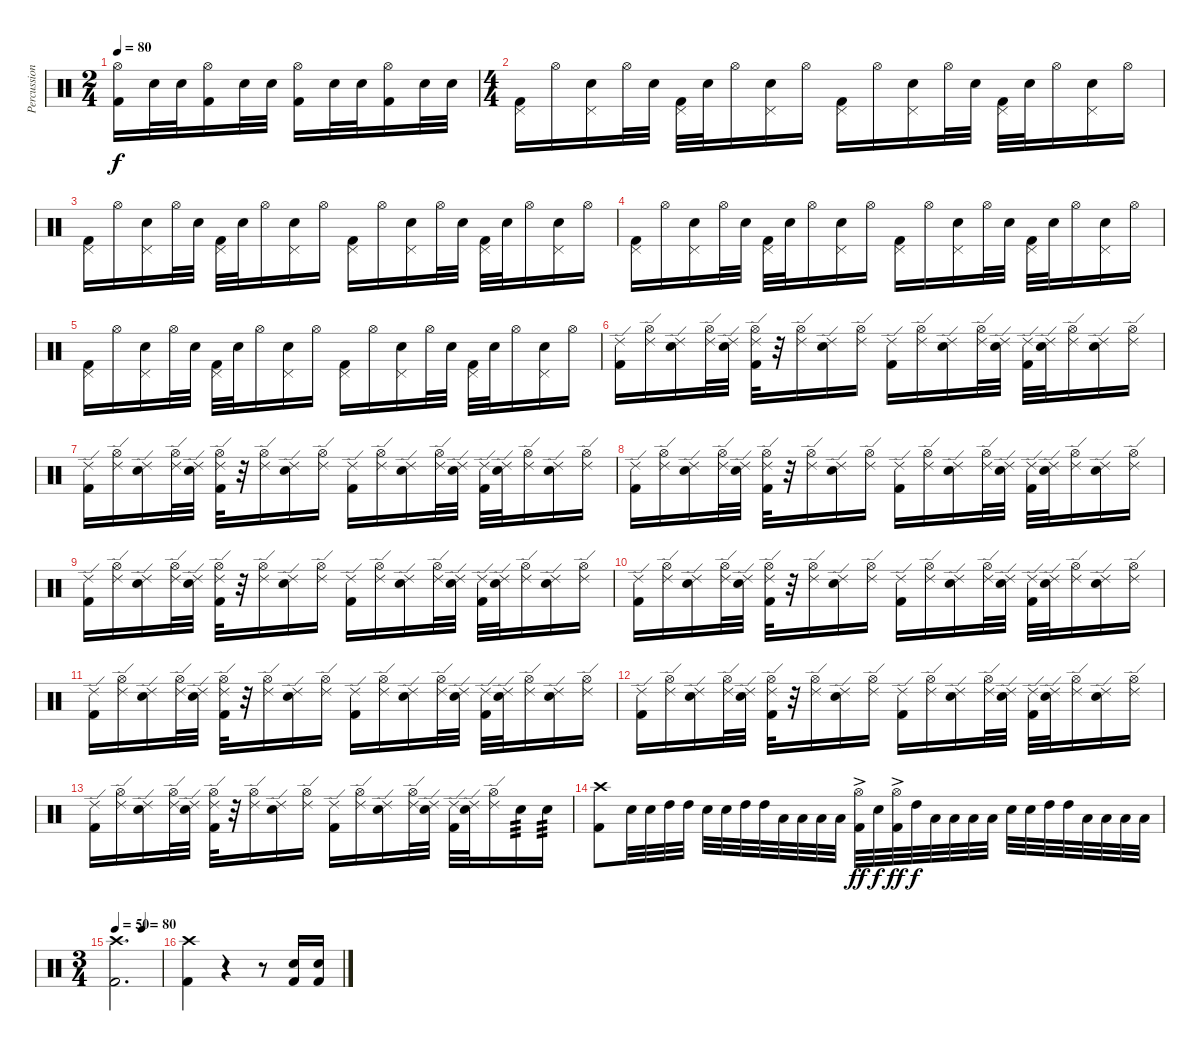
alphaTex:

\track ("Percussion" "Percussion") {instrument percussion}
\staff {score}
\articulation defaults
\ts (2 4)
\tempo 80
\clef neutral
\ks c
("Hi-Hat (open)" "Kick (hit) 2").16{dy f} "Electric Snare (hit)".32 "Electric Snare (hit)".32 ("Hi-Hat (open)" "Kick (hit) 2").16 "Electric Snare (hit)".32 "Electric Snare (hit)".32 ("Hi-Hat (open)" "Kick (hit) 2").16 "Electric Snare (hit)".32 "Electric Snare (hit)".32 ("Hi-Hat (open)" "Kick (hit) 2").16 "Electric Snare (hit)".32 "Electric Snare (hit)".32 |
\ts (4 4)
("Pedal Hi-Hat (hit)" "Kick (hit) 2").16 "Hi-Hat (open)".16 ("Pedal Hi-Hat (hit)" "Electric Snare (hit)").16 "Hi-Hat (open)".32 "Electric Snare (hit)".32 ("Pedal Hi-Hat (hit)" "Kick (hit) 2").32 "Electric Snare (hit)".32 "Hi-Hat (open)".16 ("Pedal Hi-Hat (hit)" "Electric Snare (hit)").16 "Hi-Hat (open)".16 ("Pedal Hi-Hat (hit)" "Kick (hit) 2").16 "Hi-Hat (open)".16 ("Pedal Hi-Hat (hit)" "Electric Snare (hit)").16 "Hi-Hat (open)".32 "Electric Snare (hit)".32 ("Pedal Hi-Hat (hit)" "Kick (hit) 2").32 "Electric Snare (hit)".32 "Hi-Hat (open)".16 ("Pedal Hi-Hat (hit)" "Electric Snare (hit)").16 "Hi-Hat (open)".16 |
("Pedal Hi-Hat (hit)" "Kick (hit) 2").16 "Hi-Hat (open)".16 ("Pedal Hi-Hat (hit)" "Electric Snare (hit)").16 "Hi-Hat (open)".32 "Electric Snare (hit)".32 ("Pedal Hi-Hat (hit)" "Kick (hit) 2").32 "Electric Snare (hit)".32 "Hi-Hat (open)".16 ("Pedal Hi-Hat (hit)" "Electric Snare (hit)").16 "Hi-Hat (open)".16 ("Pedal Hi-Hat (hit)" "Kick (hit) 2").16 "Hi-Hat (open)".16 ("Pedal Hi-Hat (hit)" "Electric Snare (hit)").16 "Hi-Hat (open)".32 "Electric Snare (hit)".32 ("Pedal Hi-Hat (hit)" "Kick (hit) 2").32 "Electric Snare (hit)".32 "Hi-Hat (open)".16 ("Pedal Hi-Hat (hit)" "Electric Snare (hit)").16 "Hi-Hat (open)".16 |
("Pedal Hi-Hat (hit)" "Kick (hit) 2").16 "Hi-Hat (open)".16 ("Pedal Hi-Hat (hit)" "Electric Snare (hit)").16 "Hi-Hat (open)".32 "Electric Snare (hit)".32 ("Pedal Hi-Hat (hit)" "Kick (hit) 2").32 "Electric Snare (hit)".32 "Hi-Hat (open)".16 ("Pedal Hi-Hat (hit)" "Electric Snare (hit)").16 "Hi-Hat (open)".16 ("Pedal Hi-Hat (hit)" "Kick (hit) 2").16 "Hi-Hat (open)".16 ("Pedal Hi-Hat (hit)" "Electric Snare (hit)").16 "Hi-Hat (open)".32 "Electric Snare (hit)".32 ("Pedal Hi-Hat (hit)" "Kick (hit) 2").32 "Electric Snare (hit)".32 "Hi-Hat (open)".16 ("Pedal Hi-Hat (hit)" "Electric Snare (hit)").16 "Hi-Hat (open)".16 |
("Pedal Hi-Hat (hit)" "Kick (hit) 2").16 "Hi-Hat (open)".16 ("Pedal Hi-Hat (hit)" "Electric Snare (hit)").16 "Hi-Hat (open)".32 "Electric Snare (hit)".32 ("Pedal Hi-Hat (hit)" "Kick (hit) 2").32 "Electric Snare (hit)".32 "Hi-Hat (open)".16 ("Pedal Hi-Hat (hit)" "Electric Snare (hit)").16 "Hi-Hat (open)".16 ("Pedal Hi-Hat (hit)" "Kick (hit) 2").16 "Hi-Hat (open)".16 ("Pedal Hi-Hat (hit)" "Electric Snare (hit)").16 "Hi-Hat (open)".32 "Electric Snare (hit)".32 ("Pedal Hi-Hat (hit)" "Kick (hit) 2").32 "Electric Snare (hit)".32 "Hi-Hat (open)".16 ("Pedal Hi-Hat (hit)" "Electric Snare (hit)").16 "Hi-Hat (open)".16 |
("Ride (edge) 2" "Kick (hit) 2").16 ("Ride (edge) 2" "Hi-Hat (open)").16 ("Ride (edge) 2" "Electric Snare (hit)").16 ("Ride (edge) 2" "Hi-Hat (open)").32 ("Ride (edge) 2" "Electric Snare (hit)").32 ("Ride (edge) 2" "Hi-Hat (open)" "Kick (hit) 2").32 r.32 ("Ride (edge) 2" "Hi-Hat (open)").16 ("Ride (edge) 2" "Electric Snare (hit)").16 ("Ride (edge) 2" "Hi-Hat (open)").16 ("Ride (edge) 2" "Kick (hit) 2").16 ("Ride (edge) 2" "Hi-Hat (open)").16 ("Ride (edge) 2" "Electric Snare (hit)").16 ("Ride (edge) 2" "Hi-Hat (open)").32 ("Ride (edge) 2" "Electric Snare (hit)").32 ("Ride (edge) 2" "Kick (hit) 2").32 ("Ride (edge) 2" "Electric Snare (hit)").32 ("Ride (edge) 2" "Hi-Hat (open)").16 ("Ride (edge) 2" "Electric Snare (hit)").16 ("Ride (edge) 2" "Hi-Hat (open)").16 |
("Ride (edge) 2" "Kick (hit) 2").16 ("Ride (edge) 2" "Hi-Hat (open)").16 ("Ride (edge) 2" "Electric Snare (hit)").16 ("Ride (edge) 2" "Hi-Hat (open)").32 ("Ride (edge) 2" "Electric Snare (hit)").32 ("Ride (edge) 2" "Hi-Hat (open)" "Kick (hit) 2").32 r.32 ("Ride (edge) 2" "Hi-Hat (open)").16 ("Ride (edge) 2" "Electric Snare (hit)").16 ("Ride (edge) 2" "Hi-Hat (open)").16 ("Ride (edge) 2" "Kick (hit) 2").16 ("Ride (edge) 2" "Hi-Hat (open)").16 ("Ride (edge) 2" "Electric Snare (hit)").16 ("Ride (edge) 2" "Hi-Hat (open)").32 ("Ride (edge) 2" "Electric Snare (hit)").32 ("Ride (edge) 2" "Kick (hit) 2").32 ("Ride (edge) 2" "Electric Snare (hit)").32 ("Ride (edge) 2" "Hi-Hat (open)").16 ("Ride (edge) 2" "Electric Snare (hit)").16 ("Ride (edge) 2" "Hi-Hat (open)").16 |
("Ride (edge) 2" "Kick (hit) 2").16 ("Ride (edge) 2" "Hi-Hat (open)").16 ("Ride (edge) 2" "Electric Snare (hit)").16 ("Ride (edge) 2" "Hi-Hat (open)").32 ("Ride (edge) 2" "Electric Snare (hit)").32 ("Ride (edge) 2" "Hi-Hat (open)" "Kick (hit) 2").32 r.32 ("Ride (edge) 2" "Hi-Hat (open)").16 ("Ride (edge) 2" "Electric Snare (hit)").16 ("Ride (edge) 2" "Hi-Hat (open)").16 ("Ride (edge) 2" "Kick (hit) 2").16 ("Ride (edge) 2" "Hi-Hat (open)").16 ("Ride (edge) 2" "Electric Snare (hit)").16 ("Ride (edge) 2" "Hi-Hat (open)").32 ("Ride (edge) 2" "Electric Snare (hit)").32 ("Ride (edge) 2" "Kick (hit) 2").32 ("Ride (edge) 2" "Electric Snare (hit)").32 ("Ride (edge) 2" "Hi-Hat (open)").16 ("Ride (edge) 2" "Electric Snare (hit)").16 ("Ride (edge) 2" "Hi-Hat (open)").16 |
("Ride (edge) 2" "Kick (hit) 2").16 ("Ride (edge) 2" "Hi-Hat (open)").16 ("Ride (edge) 2" "Electric Snare (hit)").16 ("Ride (edge) 2" "Hi-Hat (open)").32 ("Ride (edge) 2" "Electric Snare (hit)").32 ("Ride (edge) 2" "Hi-Hat (open)" "Kick (hit) 2").32 r.32 ("Ride (edge) 2" "Hi-Hat (open)").16 ("Ride (edge) 2" "Electric Snare (hit)").16 ("Ride (edge) 2" "Hi-Hat (open)").16 ("Ride (edge) 2" "Kick (hit) 2").16 ("Ride (edge) 2" "Hi-Hat (open)").16 ("Ride (edge) 2" "Electric Snare (hit)").16 ("Ride (edge) 2" "Hi-Hat (open)").32 ("Ride (edge) 2" "Electric Snare (hit)").32 ("Ride (edge) 2" "Kick (hit) 2").32 ("Ride (edge) 2" "Electric Snare (hit)").32 ("Ride (edge) 2" "Hi-Hat (open)").16 ("Ride (edge) 2" "Electric Snare (hit)").16 ("Ride (edge) 2" "Hi-Hat (open)").16 |
("Ride (edge) 2" "Kick (hit) 2").16 ("Ride (edge) 2" "Hi-Hat (open)").16 ("Ride (edge) 2" "Electric Snare (hit)").16 ("Ride (edge) 2" "Hi-Hat (open)").32 ("Ride (edge) 2" "Electric Snare (hit)").32 ("Ride (edge) 2" "Hi-Hat (open)" "Kick (hit) 2").32 r.32 ("Ride (edge) 2" "Hi-Hat (open)").16 ("Ride (edge) 2" "Electric Snare (hit)").16 ("Ride (edge) 2" "Hi-Hat (open)").16 ("Ride (edge) 2" "Kick (hit) 2").16 ("Ride (edge) 2" "Hi-Hat (open)").16 ("Ride (edge) 2" "Electric Snare (hit)").16 ("Ride (edge) 2" "Hi-Hat (open)").32 ("Ride (edge) 2" "Electric Snare (hit)").32 ("Ride (edge) 2" "Kick (hit) 2").32 ("Ride (edge) 2" "Electric Snare (hit)").32 ("Ride (edge) 2" "Hi-Hat (open)").16 ("Ride (edge) 2" "Electric Snare (hit)").16 ("Ride (edge) 2" "Hi-Hat (open)").16 |
("Ride (edge) 2" "Kick (hit) 2").16 ("Ride (edge) 2" "Hi-Hat (open)").16 ("Ride (edge) 2" "Electric Snare (hit)").16 ("Ride (edge) 2" "Hi-Hat (open)").32 ("Ride (edge) 2" "Electric Snare (hit)").32 ("Ride (edge) 2" "Hi-Hat (open)" "Kick (hit) 2").32 r.32 ("Ride (edge) 2" "Hi-Hat (open)").16 ("Ride (edge) 2" "Electric Snare (hit)").16 ("Ride (edge) 2" "Hi-Hat (open)").16 ("Ride (edge) 2" "Kick (hit) 2").16 ("Ride (edge) 2" "Hi-Hat (open)").16 ("Ride (edge) 2" "Electric Snare (hit)").16 ("Ride (edge) 2" "Hi-Hat (open)").32 ("Ride (edge) 2" "Electric Snare (hit)").32 ("Ride (edge) 2" "Kick (hit) 2").32 ("Ride (edge) 2" "Electric Snare (hit)").32 ("Ride (edge) 2" "Hi-Hat (open)").16 ("Ride (edge) 2" "Electric Snare (hit)").16 ("Ride (edge) 2" "Hi-Hat (open)").16 |
("Ride (edge) 2" "Kick (hit) 2").16 ("Ride (edge) 2" "Hi-Hat (open)").16 ("Ride (edge) 2" "Electric Snare (hit)").16 ("Ride (edge) 2" "Hi-Hat (open)").32 ("Ride (edge) 2" "Electric Snare (hit)").32 ("Ride (edge) 2" "Hi-Hat (open)" "Kick (hit) 2").32 r.32 ("Ride (edge) 2" "Hi-Hat (open)").16 ("Ride (edge) 2" "Electric Snare (hit)").16 ("Ride (edge) 2" "Hi-Hat (open)").16 ("Ride (edge) 2" "Kick (hit) 2").16 ("Ride (edge) 2" "Hi-Hat (open)").16 ("Ride (edge) 2" "Electric Snare (hit)").16 ("Ride (edge) 2" "Hi-Hat (open)").32 ("Ride (edge) 2" "Electric Snare (hit)").32 ("Ride (edge) 2" "Kick (hit) 2").32 ("Ride (edge) 2" "Electric Snare (hit)").32 ("Ride (edge) 2" "Hi-Hat (open)").16 ("Ride (edge) 2" "Electric Snare (hit)").16 ("Ride (edge) 2" "Hi-Hat (open)").16 |
("Ride (edge) 2" "Kick (hit) 2").16 ("Ride (edge) 2" "Hi-Hat (open)").16 ("Ride (edge) 2" "Electric Snare (hit)").16 ("Ride (edge) 2" "Hi-Hat (open)").32 ("Ride (edge) 2" "Electric Snare (hit)").32 ("Ride (edge) 2" "Hi-Hat (open)" "Kick (hit) 2").32 r.32 ("Ride (edge) 2" "Hi-Hat (open)").16 ("Ride (edge) 2" "Electric Snare (hit)").16 ("Ride (edge) 2" "Hi-Hat (open)").16 ("Ride (edge) 2" "Kick (hit) 2").16 ("Ride (edge) 2" "Hi-Hat (open)").16 ("Ride (edge) 2" "Electric Snare (hit)").16 ("Ride (edge) 2" "Hi-Hat (open)").32 ("Ride (edge) 2" "Electric Snare (hit)").32 ("Ride (edge) 2" "Kick (hit) 2").32 ("Ride (edge) 2" "Electric Snare (hit)").32 ("Ride (edge) 2" "Hi-Hat (open)").16 "Electric Snare (hit)".16{tp 3} "Electric Snare (hit)".16{tp 3} |
("Crash high (hit)" "Kick (hit) 2").8 "Electric Snare (hit)".32 "Electric Snare (hit)".32 "High Tom (hit)".32 "High Tom (hit)".32 "Electric Snare (hit)".32 "Electric Snare (hit)".32 "High Tom (hit)".32 "High Tom (hit)".32 "Low Tom (hit)".32 "Low Tom (hit)".32 "Low Floor Tom (hit)".32 "Low Floor Tom (hit)".32 ("Hi-Hat (open)"{ac} "Kick (hit) 2").32{dy ff} "Electric Snare (hit)".32{dy f} ("Hi-Hat (open)"{ac} "Kick (hit) 2").32{dy ff} "High Tom (hit)".32{dy f} "Low Tom (hit)".32 "Low Tom (hit)".32 "Low Floor Tom (hit)".32 "Low Floor Tom (hit)".32 "Electric Snare (hit)".32 "Electric Snare (hit)".32 "High Tom (hit)".32 "High Tom (hit)".32 "Low Floor Tom (hit)".32 "Low Floor Tom (hit)".32 "Low Tom (hit)".32 "Low Tom (hit)".32 |
\ts (3 4)
\tempo 50
\tempo (80 0.5833333333333334)
("Crash high (hit)" "Kick (hit) 2").2{d} |
("Crash high (hit)" "Kick (hit) 2").4 r.4 r.8 ("Electric Snare (hit)" "Kick (hit) 2").16 ("Electric Snare (hit)" "Kick (hit) 2").16
